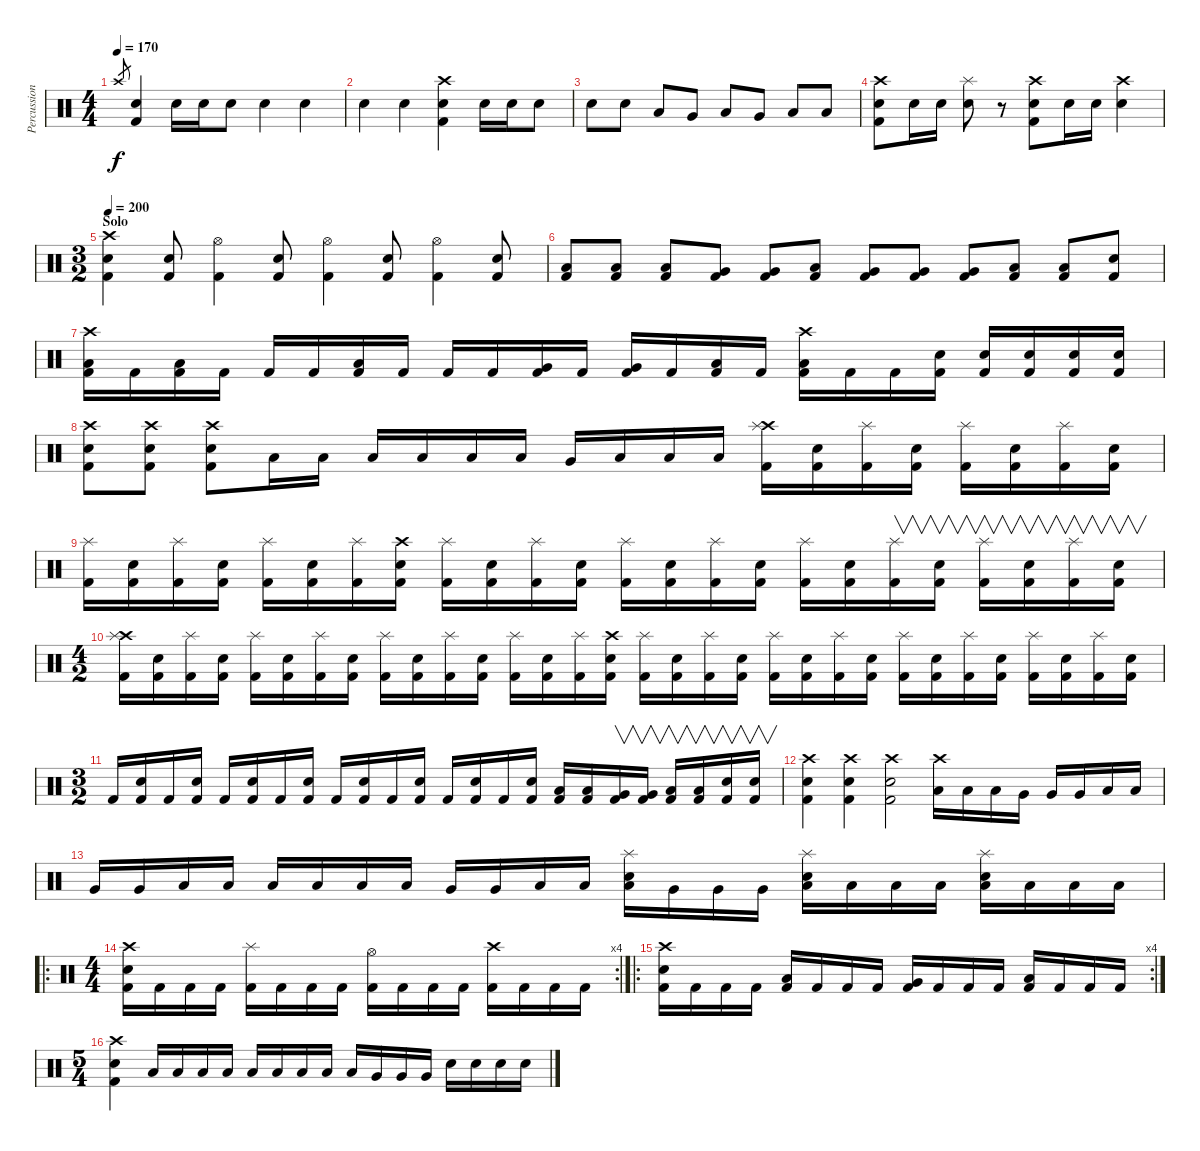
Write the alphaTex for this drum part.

\track ("Percussion" "Percussion") {instrument percussion}
\staff {score}
\articulation defaults
\ts (4 4)
\tempo 170
\clef neutral
\ks c "Crash high (hit)".8{gr dy f}
("Snare (hit) 2" "Kick (hit) 2").4 "Electric Snare (hit)".16 "Electric Snare (hit)".16 "Electric Snare (hit)".8 "Electric Snare (hit)".4 "Electric Snare (hit)".4 |
"Electric Snare (hit)".4 "Snare (hit) 2".4 ("Crash high (hit)" "Snare (hit) 2" "Kick (hit) 2").4 "Electric Snare (hit)".16 "Electric Snare (hit)".16 "Electric Snare (hit)".8 |
"Electric Snare (hit)".8 "Electric Snare (hit)".8 "Low Floor Tom (hit)".8 "Very Low Tom (hit)".8 "Low Tom (hit)".8 "Very Low Tom (hit)".8 "Low Floor Tom (hit)".8 "Low Floor Tom (hit)".8 |
("Crash high (hit)" "Snare (hit) 2" "Kick (hit) 2").8 "Electric Snare (hit)".16 "Electric Snare (hit)".16 ("Splash (hit)" "Electric Snare (hit)").8 r.8 ("Crash high (hit)" "Snare (hit) 2" "Kick (hit) 2").8 "Electric Snare (hit)".16 "Electric Snare (hit)".16 ("Crash high (hit)" "Electric Snare (hit)").4 |
\ts (3 2)
\section ("" "Solo")
\tempo 200
("Crash high (hit)" "Snare (hit) 2" "Kick (hit) 2").4 ("Snare (hit) 2" "Kick (hit) 2").8 ("Hi-Hat (open)" "Kick (hit) 2").4 ("Snare (hit) 2" "Kick (hit) 2").8 ("Hi-Hat (open)" "Kick (hit) 2").4 ("Snare (hit) 2" "Kick (hit) 2").8 ("Hi-Hat (open)" "Kick (hit) 2").4 ("Snare (hit) 2" "Kick (hit) 2").8 |
("Low Tom (hit)" "Kick (hit) 2").8 ("Low Tom (hit)" "Kick (hit) 2").8 ("Low Tom (hit)" "Kick (hit) 2").8 ("Very Low Tom (hit)" "Kick (hit) 2").8 ("Very Low Tom (hit)" "Kick (hit) 2").8 ("Low Floor Tom (hit)" "Kick (hit) 2").8 ("Very Low Tom (hit)" "Kick (hit) 2").8 ("Very Low Tom (hit)" "Kick (hit) 2").8 ("Very Low Tom (hit)" "Kick (hit) 2").8 ("Low Floor Tom (hit)" "Kick (hit) 2").8 ("Low Floor Tom (hit)" "Kick (hit) 2").8 ("Electric Snare (hit)" "Kick (hit) 2").8 |
("Crash high (hit)" "Low Tom (hit)" "Kick (hit) 2").16 "Kick (hit) 2".16 ("Low Tom (hit)" "Kick (hit) 2").16 "Kick (hit) 2".16 "Kick (hit) 2".16 "Kick (hit) 2".16 ("Low Tom (hit)" "Kick (hit) 2").16 "Kick (hit) 2".16 "Kick (hit) 2".16 "Kick (hit) 2".16 ("Very Low Tom (hit)" "Kick (hit) 2").16 "Kick (hit) 2".16 ("Very Low Tom (hit)" "Kick (hit) 2").16 "Kick (hit) 2".16 ("Low Floor Tom (hit)" "Kick (hit) 2").16 "Kick (hit) 2".16 ("Crash high (hit)" "Low Floor Tom (hit)" "Kick (hit) 2").16 "Kick (hit) 2".16 "Kick (hit) 2".16 ("Snare (hit) 2" "Kick (hit) 2").16 ("Snare (hit) 2" "Kick (hit) 2").16 ("Snare (hit) 2" "Kick (hit) 2").16 ("Snare (hit) 2" "Kick (hit) 2").16 ("Snare (hit) 2" "Kick (hit) 2").16 |
("Crash high (hit)" "Snare (hit) 2" "Kick (hit) 2").8 ("Crash high (hit)" "Snare (hit) 2" "Kick (hit) 2").8 ("Crash high (hit)" "Snare (hit) 2" "Kick (hit) 2").8 "Low Tom (hit)".16 "Low Tom (hit)".16 "Low Tom (hit)".16 "Low Floor Tom (hit)".16 "Low Floor Tom (hit)".16 "Low Floor Tom (hit)".16 "Very Low Tom (hit)".16 "Low Floor Tom (hit)".16 "Low Tom (hit)".16 "Low Tom (hit)".16 ("Crash high (hit)" "Splash (hit)" "Kick (hit) 2").16 ("Snare (hit) 2" "Kick (hit) 2").16 ("Splash (hit)" "Kick (hit) 2").16 ("Snare (hit) 2" "Kick (hit) 2").16 ("Splash (hit)" "Kick (hit) 2").16 ("Snare (hit) 2" "Kick (hit) 2").16 ("Splash (hit)" "Kick (hit) 2").16 ("Snare (hit) 2" "Kick (hit) 2").16 |
("Splash (hit)" "Kick (hit) 2").16 ("Snare (hit) 2" "Kick (hit) 2").16 ("Splash (hit)" "Kick (hit) 2").16 ("Snare (hit) 2" "Kick (hit) 2").16 ("Splash (hit)" "Kick (hit) 2").16 ("Snare (hit) 2" "Kick (hit) 2").16 ("Splash (hit)" "Kick (hit) 2").16 ("Crash high (hit)" "Snare (hit) 2" "Kick (hit) 2").16 ("Splash (hit)" "Kick (hit) 2").16 ("Snare (hit) 2" "Kick (hit) 2").16 ("Splash (hit)" "Kick (hit) 2").16 ("Snare (hit) 2" "Kick (hit) 2").16 ("Splash (hit)" "Kick (hit) 2").16 ("Snare (hit) 2" "Kick (hit) 2").16 ("Splash (hit)" "Kick (hit) 2").16 ("Snare (hit) 2" "Kick (hit) 2").16 ("Splash (hit)" "Kick (hit) 2").16 ("Snare (hit) 2" "Kick (hit) 2").16 ("Splash (hit)" "Kick (hit) 2").16{v} ("Snare (hit) 2" "Kick (hit) 2").16{v} ("Splash (hit)" "Kick (hit) 2").16{v} ("Snare (hit) 2" "Kick (hit) 2").16{v} ("Splash (hit)" "Kick (hit) 2").16{v} ("Snare (hit) 2" "Kick (hit) 2").16{v} |
\ts (4 2)
("Crash high (hit)" "Splash (hit)" "Kick (hit) 2").16 ("Snare (hit) 2" "Kick (hit) 2").16 ("Splash (hit)" "Kick (hit) 2").16 ("Snare (hit) 2" "Kick (hit) 2").16 ("Splash (hit)" "Kick (hit) 2").16 ("Snare (hit) 2" "Kick (hit) 2").16 ("Splash (hit)" "Kick (hit) 2").16 ("Snare (hit) 2" "Kick (hit) 2").16 ("Splash (hit)" "Kick (hit) 2").16 ("Snare (hit) 2" "Kick (hit) 2").16 ("Splash (hit)" "Kick (hit) 2").16 ("Snare (hit) 2" "Kick (hit) 2").16 ("Splash (hit)" "Kick (hit) 2").16 ("Snare (hit) 2" "Kick (hit) 2").16 ("Splash (hit)" "Kick (hit) 2").16 ("Crash high (hit)" "Snare (hit) 2" "Kick (hit) 2").16 ("Splash (hit)" "Kick (hit) 2").16 ("Snare (hit) 2" "Kick (hit) 2").16 ("Splash (hit)" "Kick (hit) 2").16 ("Snare (hit) 2" "Kick (hit) 2").16 ("Splash (hit)" "Kick (hit) 2").16 ("Snare (hit) 2" "Kick (hit) 2").16 ("Splash (hit)" "Kick (hit) 2").16 ("Snare (hit) 2" "Kick (hit) 2").16 ("Splash (hit)" "Kick (hit) 2").16 ("Snare (hit) 2" "Kick (hit) 2").16 ("Splash (hit)" "Kick (hit) 2").16 ("Snare (hit) 2" "Kick (hit) 2").16 ("Splash (hit)" "Kick (hit) 2").16 ("Snare (hit) 2" "Kick (hit) 2").16 ("Splash (hit)" "Kick (hit) 2").16 ("Snare (hit) 2" "Kick (hit) 2").16 |
\ts (3 2)
"Kick (hit) 2".16 ("Snare (hit) 2" "Kick (hit) 2").16 "Kick (hit) 2".16 ("Snare (hit) 2" "Kick (hit) 2").16 "Kick (hit) 2".16 ("Snare (hit) 2" "Kick (hit) 2").16 "Kick (hit) 2".16 ("Snare (hit) 2" "Kick (hit) 2").16 "Kick (hit) 2".16 ("Snare (hit) 2" "Kick (hit) 2").16 "Kick (hit) 2".16 ("Snare (hit) 2" "Kick (hit) 2").16 "Kick (hit) 2".16 ("Snare (hit) 2" "Kick (hit) 2").16 "Kick (hit) 2".16 ("Snare (hit) 2" "Kick (hit) 2").16 ("Low Tom (hit)" "Kick (hit) 2").16 ("Low Tom (hit)" "Kick (hit) 2").16 ("Very Low Tom (hit)" "Kick (hit) 2").16{v} ("Very Low Tom (hit)" "Kick (hit) 2").16{v} ("Low Floor Tom (hit)" "Kick (hit) 2").16{v} ("Low Floor Tom (hit)" "Kick (hit) 2").16{v} ("Electric Snare (hit)" "Kick (hit) 2").16{v} ("Electric Snare (hit)" "Kick (hit) 2").16{v} |
("Crash high (hit)" "Snare (hit) 2" "Kick (hit) 2").4 ("Crash high (hit)" "Snare (hit) 2" "Kick (hit) 2").4 ("Crash high (hit)" "Snare (hit) 2" "Kick (hit) 2").2 ("Crash high (hit)" "Low Tom (hit)").16 "Low Tom (hit)".16 "Low Tom (hit)".16 "Very Low Tom (hit)".16 "Very Low Tom (hit)".16 "Very Low Tom (hit)".16 "Low Tom (hit)".16 "Low Tom (hit)".16 |
"Very Low Tom (hit)".16 "Very Low Tom (hit)".16 "Low Floor Tom (hit)".16 "Low Floor Tom (hit)".16 "Low Floor Tom (hit)".16 "Low Floor Tom (hit)".16 "Low Tom (hit)".16 "Low Tom (hit)".16 "Very Low Tom (hit)".16 "Very Low Tom (hit)".16 "Low Floor Tom (hit)".16 "Low Floor Tom (hit)".16 ("Snare (hit) 2" "Splash (hit)" "Low Floor Tom (hit)").16 "Very Low Tom (hit)".16 "Very Low Tom (hit)".16 "Very Low Tom (hit)".16 ("Snare (hit) 2" "Splash (hit)" "Low Floor Tom (hit)").16 "Low Floor Tom (hit)".16 "Low Floor Tom (hit)".16 "Low Tom (hit)".16 ("Snare (hit) 2" "Splash (hit)" "Low Tom (hit)").16 "Low Tom (hit)".16 "Low Floor Tom (hit)".16 "Low Floor Tom (hit)".16 |
\ro
\rc 4
\ts (4 4)
("Crash high (hit)" "Snare (hit) 2" "Kick (hit) 2").16 "Kick (hit) 2".16 "Kick (hit) 2".16 "Kick (hit) 2".16 ("Splash (hit)" "Kick (hit) 2").16 "Kick (hit) 2".16 "Kick (hit) 2".16 "Kick (hit) 2".16 ("Hi-Hat (open)" "Kick (hit) 2").16 "Kick (hit) 2".16 "Kick (hit) 2".16 "Kick (hit) 2".16 ("Crash high (hit)" "Kick (hit) 2").16 "Kick (hit) 2".16 "Kick (hit) 2".16 "Kick (hit) 2".16 |
\ro
\rc 4
("Crash high (hit)" "Snare (hit) 2" "Kick (hit) 2").16 "Kick (hit) 2".16 "Kick (hit) 2".16 "Kick (hit) 2".16 ("Low Tom (hit)" "Kick (hit) 2").16 "Kick (hit) 2".16 "Kick (hit) 2".16 "Kick (hit) 2".16 ("Very Low Tom (hit)" "Kick (hit) 2").16 "Kick (hit) 2".16 "Kick (hit) 2".16 "Kick (hit) 2".16 ("Low Floor Tom (hit)" "Kick (hit) 2").16 "Kick (hit) 2".16 "Kick (hit) 2".16 "Kick (hit) 2".16 |
\ts (5 4)
("Crash high (hit)" "Snare (hit) 2" "Kick (hit) 2").4 "Low Tom (hit)".16 "Low Tom (hit)".16 "Low Tom (hit)".16 "Low Floor Tom (hit)".16 "Low Floor Tom (hit)".16 "Low Floor Tom (hit)".16 "Low Tom (hit)".16 "Low Tom (hit)".16 "Low Tom (hit)".16 "Very Low Tom (hit)".16 "Very Low Tom (hit)".16 "Very Low Tom (hit)".16 "Electric Snare (hit)".16 "Electric Snare (hit)".16 "Electric Snare (hit)".16 "Electric Snare (hit)".16
